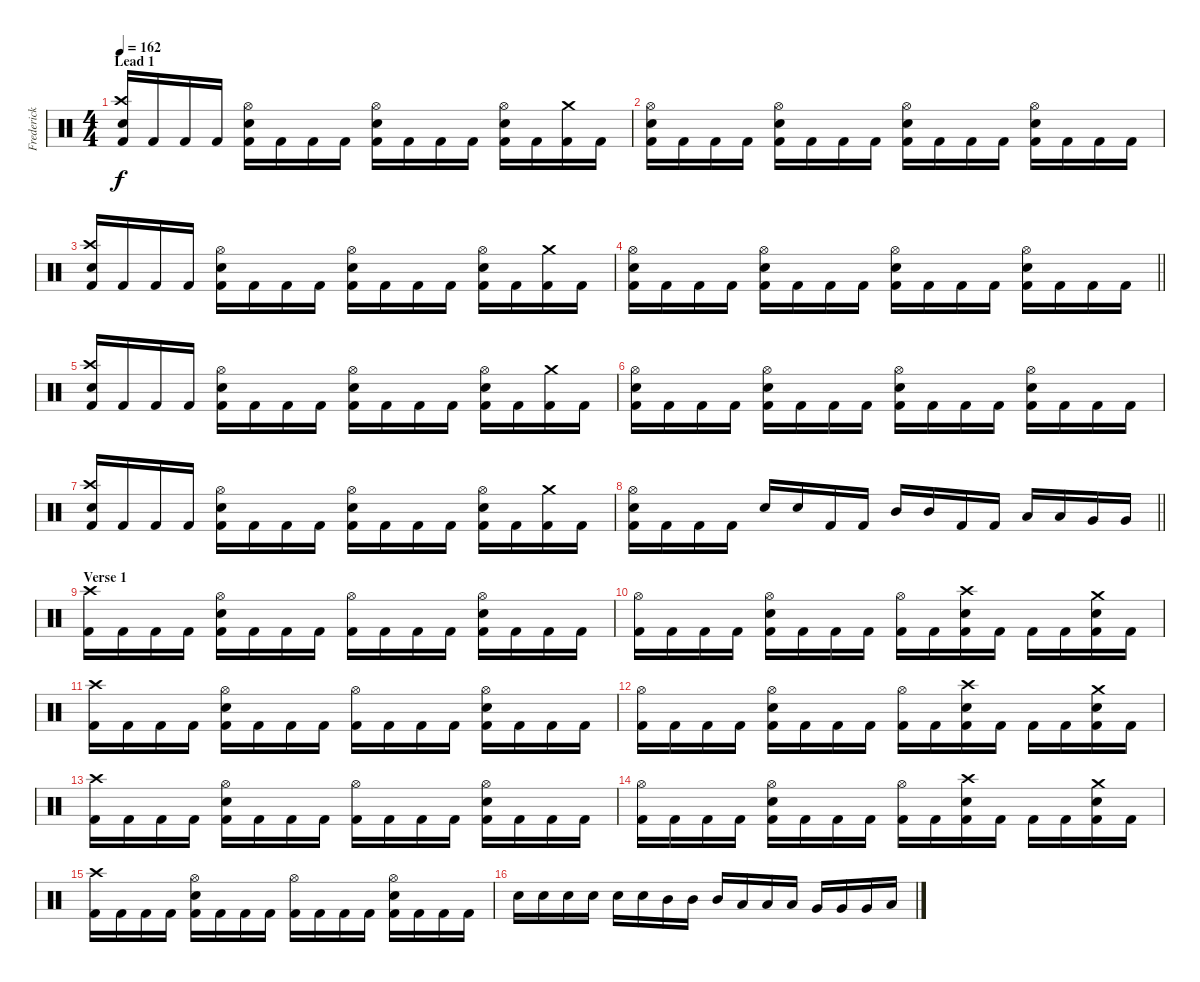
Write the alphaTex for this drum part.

\track ("Frederick Ehmke" "Frederick ") {instrument percussion}
\staff {score}
\articulation defaults
\ts (4 4)
\section ("" "Lead 1")
\tempo 162
\clef neutral
\ks c
("Electric Snare (hit)" "Crash high (hit)" "Kick (hit) 2").16{dy f} "Kick (hit) 2".16 "Kick (hit) 2".16 "Kick (hit) 2".16 ("Electric Snare (hit)" "Hi-Hat (open)" "Kick (hit) 2").16 "Kick (hit) 2".16 "Kick (hit) 2".16 "Kick (hit) 2".16 ("Electric Snare (hit)" "Hi-Hat (open)" "Kick (hit) 2").16 "Kick (hit) 2".16 "Kick (hit) 2".16 "Kick (hit) 2".16 ("Electric Snare (hit)" "Hi-Hat (open)" "Kick (hit) 2").16 "Kick (hit) 2".16 ("Kick (hit) 2" "Crash medium (hit)").16 "Kick (hit) 2".16 |
("Hi-Hat (open)" "Electric Snare (hit)" "Kick (hit) 2").16 "Kick (hit) 2".16 "Kick (hit) 2".16 "Kick (hit) 2".16 ("Hi-Hat (open)" "Electric Snare (hit)" "Kick (hit) 2").16 "Kick (hit) 2".16 "Kick (hit) 2".16 "Kick (hit) 2".16 ("Hi-Hat (open)" "Electric Snare (hit)" "Kick (hit) 2").16 "Kick (hit) 2".16 "Kick (hit) 2".16 "Kick (hit) 2".16 ("Hi-Hat (open)" "Electric Snare (hit)" "Kick (hit) 2").16 "Kick (hit) 2".16 "Kick (hit) 2".16 "Kick (hit) 2".16 |
("Electric Snare (hit)" "Crash high (hit)" "Kick (hit) 2").16 "Kick (hit) 2".16 "Kick (hit) 2".16 "Kick (hit) 2".16 ("Electric Snare (hit)" "Hi-Hat (open)" "Kick (hit) 2").16 "Kick (hit) 2".16 "Kick (hit) 2".16 "Kick (hit) 2".16 ("Electric Snare (hit)" "Hi-Hat (open)" "Kick (hit) 2").16 "Kick (hit) 2".16 "Kick (hit) 2".16 "Kick (hit) 2".16 ("Electric Snare (hit)" "Hi-Hat (open)" "Kick (hit) 2").16 "Kick (hit) 2".16 ("Kick (hit) 2" "Crash medium (hit)").16 "Kick (hit) 2".16 |
\barLineRight lightlight
("Hi-Hat (open)" "Electric Snare (hit)" "Kick (hit) 2").16 "Kick (hit) 2".16 "Kick (hit) 2".16 "Kick (hit) 2".16 ("Hi-Hat (open)" "Electric Snare (hit)" "Kick (hit) 2").16 "Kick (hit) 2".16 "Kick (hit) 2".16 "Kick (hit) 2".16 ("Hi-Hat (open)" "Electric Snare (hit)" "Kick (hit) 2").16 "Kick (hit) 2".16 "Kick (hit) 2".16 "Kick (hit) 2".16 ("Hi-Hat (open)" "Electric Snare (hit)" "Kick (hit) 2").16 "Kick (hit) 2".16 "Kick (hit) 2".16 "Kick (hit) 2".16 |
("Electric Snare (hit)" "Crash high (hit)" "Kick (hit) 2").16 "Kick (hit) 2".16 "Kick (hit) 2".16 "Kick (hit) 2".16 ("Electric Snare (hit)" "Hi-Hat (open)" "Kick (hit) 2").16 "Kick (hit) 2".16 "Kick (hit) 2".16 "Kick (hit) 2".16 ("Electric Snare (hit)" "Hi-Hat (open)" "Kick (hit) 2").16 "Kick (hit) 2".16 "Kick (hit) 2".16 "Kick (hit) 2".16 ("Electric Snare (hit)" "Hi-Hat (open)" "Kick (hit) 2").16 "Kick (hit) 2".16 ("Kick (hit) 2" "Crash medium (hit)").16 "Kick (hit) 2".16 |
("Hi-Hat (open)" "Electric Snare (hit)" "Kick (hit) 2").16 "Kick (hit) 2".16 "Kick (hit) 2".16 "Kick (hit) 2".16 ("Hi-Hat (open)" "Electric Snare (hit)" "Kick (hit) 2").16 "Kick (hit) 2".16 "Kick (hit) 2".16 "Kick (hit) 2".16 ("Hi-Hat (open)" "Electric Snare (hit)" "Kick (hit) 2").16 "Kick (hit) 2".16 "Kick (hit) 2".16 "Kick (hit) 2".16 ("Hi-Hat (open)" "Electric Snare (hit)" "Kick (hit) 2").16 "Kick (hit) 2".16 "Kick (hit) 2".16 "Kick (hit) 2".16 |
("Electric Snare (hit)" "Crash high (hit)" "Kick (hit) 2").16 "Kick (hit) 2".16 "Kick (hit) 2".16 "Kick (hit) 2".16 ("Electric Snare (hit)" "Hi-Hat (open)" "Kick (hit) 2").16 "Kick (hit) 2".16 "Kick (hit) 2".16 "Kick (hit) 2".16 ("Electric Snare (hit)" "Hi-Hat (open)" "Kick (hit) 2").16 "Kick (hit) 2".16 "Kick (hit) 2".16 "Kick (hit) 2".16 ("Electric Snare (hit)" "Hi-Hat (open)" "Kick (hit) 2").16 "Kick (hit) 2".16 ("Kick (hit) 2" "Crash medium (hit)").16 "Kick (hit) 2".16 |
\barLineRight lightlight
("Hi-Hat (open)" "Electric Snare (hit)" "Kick (hit) 2").16 "Kick (hit) 2".16 "Kick (hit) 2".16 "Kick (hit) 2".16 "Electric Snare (hit)".16 "Electric Snare (hit)".16 "Kick (hit) 2".16 "Kick (hit) 2".16 "Mid Tom (hit)".16 "Mid Tom (hit)".16 "Kick (hit) 2".16 "Kick (hit) 2".16 "Low Tom (hit)".16 "Low Tom (hit)".16 "Very Low Tom (hit)".16 "Very Low Tom (hit)".16 |
\section ("" "Verse 1")
("Crash high (hit)" "Kick (hit) 2").16 "Kick (hit) 2".16 "Kick (hit) 2".16 "Kick (hit) 2".16 ("Hi-Hat (open)" "Electric Snare (hit)" "Kick (hit) 2").16 "Kick (hit) 2".16 "Kick (hit) 2".16 "Kick (hit) 2".16 ("Hi-Hat (open)" "Kick (hit) 2").16 "Kick (hit) 2".16 "Kick (hit) 2".16 "Kick (hit) 2".16 ("Hi-Hat (open)" "Electric Snare (hit)" "Kick (hit) 2").16 "Kick (hit) 2".16 "Kick (hit) 2".16 "Kick (hit) 2".16 |
("Hi-Hat (open)" "Kick (hit) 2").16 "Kick (hit) 2".16 "Kick (hit) 2".16 "Kick (hit) 2".16 ("Hi-Hat (open)" "Electric Snare (hit)" "Kick (hit) 2").16 "Kick (hit) 2".16 "Kick (hit) 2".16 "Kick (hit) 2".16 ("Hi-Hat (open)" "Kick (hit) 2").16 "Kick (hit) 2".16 ("Crash high (hit)" "Electric Snare (hit)" "Kick (hit) 2").16 "Kick (hit) 2".16 "Kick (hit) 2".16 "Kick (hit) 2".16 ("Crash medium (hit)" "Electric Snare (hit)" "Kick (hit) 2").16 "Kick (hit) 2".16 |
("Crash high (hit)" "Kick (hit) 2").16 "Kick (hit) 2".16 "Kick (hit) 2".16 "Kick (hit) 2".16 ("Hi-Hat (open)" "Electric Snare (hit)" "Kick (hit) 2").16 "Kick (hit) 2".16 "Kick (hit) 2".16 "Kick (hit) 2".16 ("Hi-Hat (open)" "Kick (hit) 2").16 "Kick (hit) 2".16 "Kick (hit) 2".16 "Kick (hit) 2".16 ("Hi-Hat (open)" "Electric Snare (hit)" "Kick (hit) 2").16 "Kick (hit) 2".16 "Kick (hit) 2".16 "Kick (hit) 2".16 |
("Hi-Hat (open)" "Kick (hit) 2").16 "Kick (hit) 2".16 "Kick (hit) 2".16 "Kick (hit) 2".16 ("Hi-Hat (open)" "Electric Snare (hit)" "Kick (hit) 2").16 "Kick (hit) 2".16 "Kick (hit) 2".16 "Kick (hit) 2".16 ("Hi-Hat (open)" "Kick (hit) 2").16 "Kick (hit) 2".16 ("Crash high (hit)" "Electric Snare (hit)" "Kick (hit) 2").16 "Kick (hit) 2".16 "Kick (hit) 2".16 "Kick (hit) 2".16 ("Crash medium (hit)" "Electric Snare (hit)" "Kick (hit) 2").16 "Kick (hit) 2".16 |
("Crash high (hit)" "Kick (hit) 2").16 "Kick (hit) 2".16 "Kick (hit) 2".16 "Kick (hit) 2".16 ("Hi-Hat (open)" "Electric Snare (hit)" "Kick (hit) 2").16 "Kick (hit) 2".16 "Kick (hit) 2".16 "Kick (hit) 2".16 ("Hi-Hat (open)" "Kick (hit) 2").16 "Kick (hit) 2".16 "Kick (hit) 2".16 "Kick (hit) 2".16 ("Hi-Hat (open)" "Electric Snare (hit)" "Kick (hit) 2").16 "Kick (hit) 2".16 "Kick (hit) 2".16 "Kick (hit) 2".16 |
("Hi-Hat (open)" "Kick (hit) 2").16 "Kick (hit) 2".16 "Kick (hit) 2".16 "Kick (hit) 2".16 ("Hi-Hat (open)" "Electric Snare (hit)" "Kick (hit) 2").16 "Kick (hit) 2".16 "Kick (hit) 2".16 "Kick (hit) 2".16 ("Hi-Hat (open)" "Kick (hit) 2").16 "Kick (hit) 2".16 ("Crash high (hit)" "Electric Snare (hit)" "Kick (hit) 2").16 "Kick (hit) 2".16 "Kick (hit) 2".16 "Kick (hit) 2".16 ("Crash medium (hit)" "Electric Snare (hit)" "Kick (hit) 2").16 "Kick (hit) 2".16 |
("Crash high (hit)" "Kick (hit) 2").16 "Kick (hit) 2".16 "Kick (hit) 2".16 "Kick (hit) 2".16 ("Hi-Hat (open)" "Electric Snare (hit)" "Kick (hit) 2").16 "Kick (hit) 2".16 "Kick (hit) 2".16 "Kick (hit) 2".16 ("Hi-Hat (open)" "Kick (hit) 2").16 "Kick (hit) 2".16 "Kick (hit) 2".16 "Kick (hit) 2".16 ("Hi-Hat (open)" "Electric Snare (hit)" "Kick (hit) 2").16 "Kick (hit) 2".16 "Kick (hit) 2".16 "Kick (hit) 2".16 |
"Electric Snare (hit)".16 "Electric Snare (hit)".16 "Electric Snare (hit)".16 "Electric Snare (hit)".16 "Electric Snare (hit)".16 "Electric Snare (hit)".16 "Mid Tom (hit)".16 "Mid Tom (hit)".16 "Mid Tom (hit)".16 "Low Tom (hit)".16 "Low Tom (hit)".16 "Low Tom (hit)".16 "Very Low Tom (hit)".16 "Very Low Tom (hit)".16 "Very Low Tom (hit)".16 "Low Floor Tom (hit)".16
